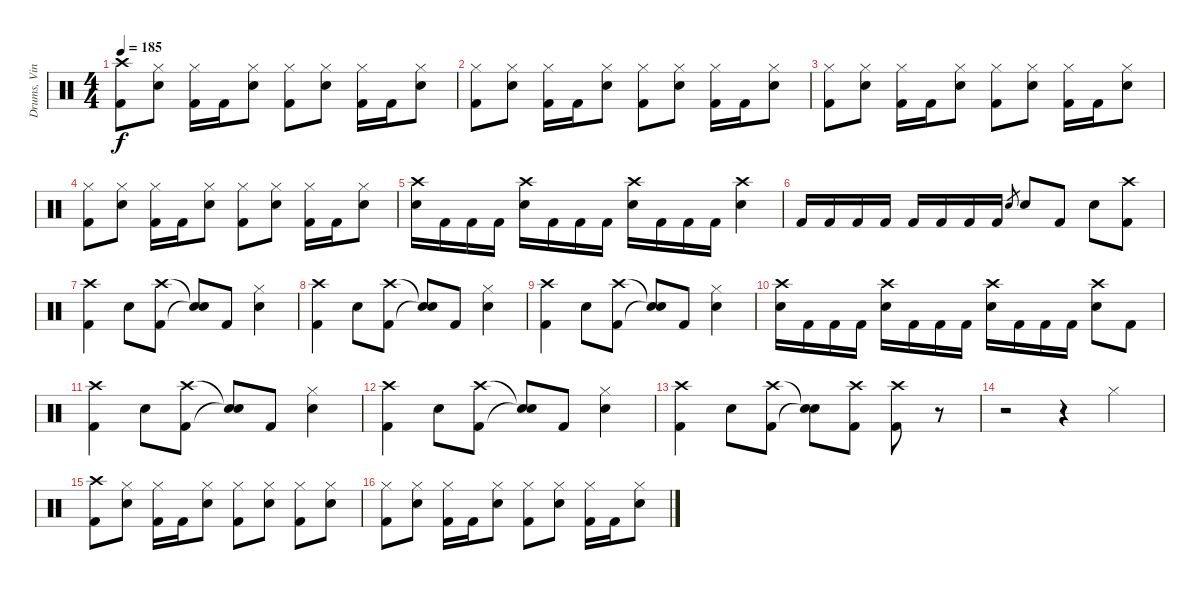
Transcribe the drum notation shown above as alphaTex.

\track ("Drums, Vinnie" "Drums, Vin") {instrument percussion}
\staff {score}
\articulation defaults
\ts (4 4)
\tempo 185
\clef neutral
\ks c
("Crash high (hit)" "Kick (hit) 2").8{dy f} ("Hi-Hat (closed)" "Electric Snare (hit)").8 ("Hi-Hat (closed)" "Kick (hit) 2").16 "Kick (hit) 2".16 ("Hi-Hat (closed)" "Electric Snare (hit)").8 ("Hi-Hat (closed)" "Kick (hit) 2").8 ("Hi-Hat (closed)" "Electric Snare (hit)").8 ("Hi-Hat (closed)" "Kick (hit) 2").16 "Kick (hit) 2".16 ("Hi-Hat (closed)" "Electric Snare (hit)").8 |
("Hi-Hat (closed)" "Kick (hit) 2").8 ("Hi-Hat (closed)" "Electric Snare (hit)").8 ("Hi-Hat (closed)" "Kick (hit) 2").16 "Kick (hit) 2".16 ("Hi-Hat (closed)" "Electric Snare (hit)").8 ("Hi-Hat (closed)" "Kick (hit) 2").8 ("Hi-Hat (closed)" "Electric Snare (hit)").8 ("Hi-Hat (closed)" "Kick (hit) 2").16 "Kick (hit) 2".16 ("Hi-Hat (closed)" "Electric Snare (hit)").8 |
("Hi-Hat (closed)" "Kick (hit) 2").8 ("Hi-Hat (closed)" "Electric Snare (hit)").8 ("Hi-Hat (closed)" "Kick (hit) 2").16 "Kick (hit) 2".16 ("Hi-Hat (closed)" "Electric Snare (hit)").8 ("Hi-Hat (closed)" "Kick (hit) 2").8 ("Hi-Hat (closed)" "Electric Snare (hit)").8 ("Hi-Hat (closed)" "Kick (hit) 2").16 "Kick (hit) 2".16 ("Hi-Hat (closed)" "Electric Snare (hit)").8 |
("Hi-Hat (closed)" "Kick (hit) 2").8 ("Hi-Hat (closed)" "Electric Snare (hit)").8 ("Hi-Hat (closed)" "Kick (hit) 2").16 "Kick (hit) 2".16 ("Hi-Hat (closed)" "Electric Snare (hit)").8 ("Hi-Hat (closed)" "Kick (hit) 2").8 ("Hi-Hat (closed)" "Electric Snare (hit)").8 ("Hi-Hat (closed)" "Kick (hit) 2").16 "Kick (hit) 2".16 ("Hi-Hat (closed)" "Electric Snare (hit)").8 |
("Crash high (hit)" "Electric Snare (hit)").16 "Kick (hit) 2".16 "Kick (hit) 2".16 "Kick (hit) 2".16 ("Crash high (hit)" "Electric Snare (hit)").16 "Kick (hit) 2".16 "Kick (hit) 2".16 "Kick (hit) 2".16 ("Crash high (hit)" "Electric Snare (hit)").16 "Kick (hit) 2".16 "Kick (hit) 2".16 "Kick (hit) 2".16 ("Crash high (hit)" "Electric Snare (hit)").4 |
"Kick (hit) 2".16 "Kick (hit) 2".16 "Kick (hit) 2".16 "Kick (hit) 2".16 "Kick (hit) 2".16 "Kick (hit) 2".16 "Kick (hit) 2".16 "Kick (hit) 2".16 "Electric Snare (hit)".8{gr} "Electric Snare (hit)".8 "Kick (hit) 2".8 "Electric Snare (hit)".8 ("Crash high (hit)" "Kick (hit) 2").8 |
("Crash high (hit)" "Kick (hit) 2").4 "Electric Snare (hit)".8 ("Crash high (hit)" "Kick (hit) 2").8 ("Snare (hit)"{t} "Snare (hit)"{t}).8 "Kick (hit) 2".8 ("Hi-Hat (closed)" "Electric Snare (hit)").4 |
("Crash high (hit)" "Kick (hit) 2").4 "Electric Snare (hit)".8 ("Crash high (hit)" "Kick (hit) 2").8 ("Snare (hit)"{t} "Snare (hit)"{t}).8 "Kick (hit) 2".8 ("Hi-Hat (closed)" "Electric Snare (hit)").4 |
("Crash high (hit)" "Kick (hit) 2").4 "Electric Snare (hit)".8 ("Crash high (hit)" "Kick (hit) 2").8 ("Snare (hit)"{t} "Snare (hit)"{t}).8 "Kick (hit) 2".8 ("Hi-Hat (closed)" "Electric Snare (hit)").4 |
("Crash high (hit)" "Electric Snare (hit)").16 "Kick (hit) 2".16 "Kick (hit) 2".16 "Kick (hit) 2".16 ("Crash high (hit)" "Electric Snare (hit)").16 "Kick (hit) 2".16 "Kick (hit) 2".16 "Kick (hit) 2".16 ("Crash high (hit)" "Electric Snare (hit)").16 "Kick (hit) 2".16 "Kick (hit) 2".16 "Kick (hit) 2".16 ("Crash high (hit)" "Electric Snare (hit)").8 "Kick (hit) 2".8 |
("Crash high (hit)" "Kick (hit) 2").4 "Electric Snare (hit)".8 ("Crash high (hit)" "Kick (hit) 2").8 ("Snare (hit)"{t} "Snare (hit)"{t}).8 "Kick (hit) 2".8 ("Hi-Hat (closed)" "Electric Snare (hit)").4 |
("Crash high (hit)" "Kick (hit) 2").4 "Electric Snare (hit)".8 ("Crash high (hit)" "Kick (hit) 2").8 ("Snare (hit)"{t} "Snare (hit)"{t}).8 "Kick (hit) 2".8 ("Hi-Hat (closed)" "Electric Snare (hit)").4 |
("Crash high (hit)" "Kick (hit) 2").4 "Electric Snare (hit)".8 ("Crash high (hit)" "Kick (hit) 2").8 ("Snare (hit)"{t} "Snare (hit)"{t}).8 ("Crash high (hit)" "Kick (hit) 2").8 ("Crash high (hit)" "Kick (hit) 2").8 r.8 |
r.2 r.4 "Hi-Hat (closed)".4 |
("Crash high (hit)" "Kick (hit) 2").8 ("Hi-Hat (closed)" "Electric Snare (hit)").8 ("Hi-Hat (closed)" "Kick (hit) 2").16 "Kick (hit) 2".16 ("Hi-Hat (closed)" "Electric Snare (hit)").8 ("Hi-Hat (closed)" "Kick (hit) 2").8 ("Hi-Hat (closed)" "Electric Snare (hit)").8 ("Hi-Hat (closed)" "Kick (hit) 2").8 ("Hi-Hat (closed)" "Electric Snare (hit)").8 |
("Hi-Hat (closed)" "Kick (hit) 2").8 ("Hi-Hat (closed)" "Electric Snare (hit)").8 ("Hi-Hat (closed)" "Kick (hit) 2").16 "Kick (hit) 2".16 ("Hi-Hat (closed)" "Electric Snare (hit)").8 ("Hi-Hat (closed)" "Kick (hit) 2").8 ("Hi-Hat (closed)" "Electric Snare (hit)").8 ("Hi-Hat (closed)" "Kick (hit) 2").16 "Kick (hit) 2".16 ("Hi-Hat (closed)" "Electric Snare (hit)").8
